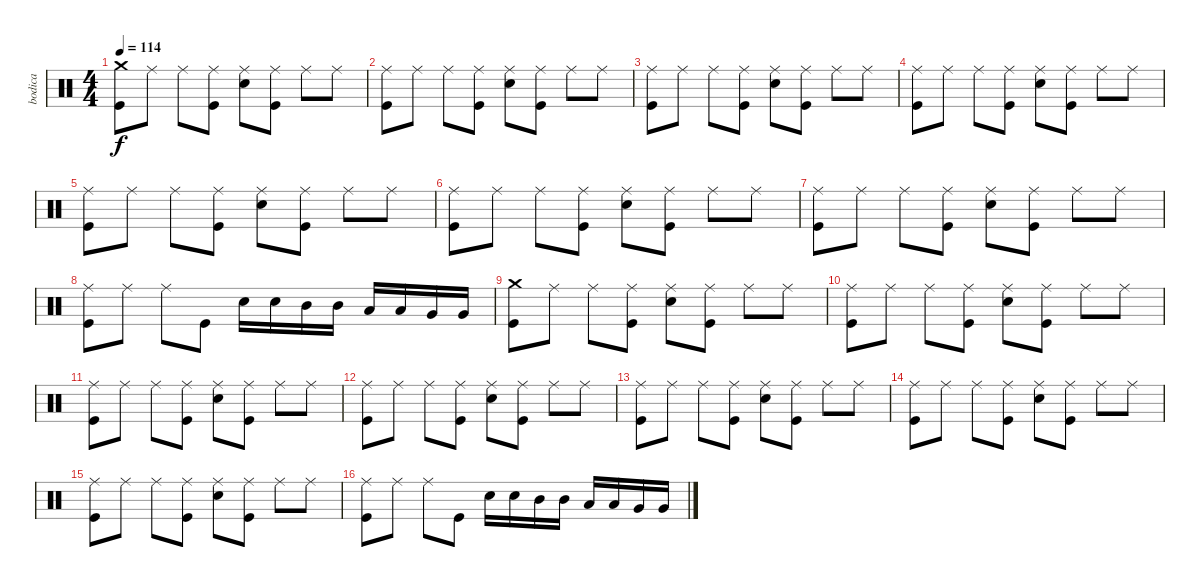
\track ("bodica" "bodica") {instrument percussion}
\staff {score}
\articulation defaults
\ts (4 4)
\tempo 114
\clef neutral
\ks c
("Crash medium (hit)" "Kick (hit)").8{dy f} "Ride (middle)".8 "Ride (middle)".8 ("Ride (middle)" "Kick (hit)").8 ("Ride (middle)" "Snare (hit) 2").8 ("Ride (middle)" "Kick (hit)").8 "Ride (middle)".8 "Ride (middle)".8 |
("Ride (middle)" "Kick (hit)").8 "Ride (middle)".8 "Ride (middle)".8 ("Ride (middle)" "Kick (hit)").8 ("Ride (middle)" "Snare (hit) 2").8 ("Ride (middle)" "Kick (hit)").8 "Ride (middle)".8 "Ride (middle)".8 |
("Ride (middle)" "Kick (hit)").8 "Ride (middle)".8 "Ride (middle)".8 ("Ride (middle)" "Kick (hit)").8 ("Ride (middle)" "Snare (hit) 2").8 ("Ride (middle)" "Kick (hit)").8 "Ride (middle)".8 "Ride (middle)".8 |
("Ride (middle)" "Kick (hit)").8 "Ride (middle)".8 "Ride (middle)".8 ("Ride (middle)" "Kick (hit)").8 ("Ride (middle)" "Snare (hit) 2").8 ("Ride (middle)" "Kick (hit)").8 "Ride (middle)".8 "Ride (middle)".8 |
("Ride (middle)" "Kick (hit)").8 "Ride (middle)".8 "Ride (middle)".8 ("Ride (middle)" "Kick (hit)").8 ("Ride (middle)" "Snare (hit) 2").8 ("Ride (middle)" "Kick (hit)").8 "Ride (middle)".8 "Ride (middle)".8 |
("Ride (middle)" "Kick (hit)").8 "Ride (middle)".8 "Ride (middle)".8 ("Ride (middle)" "Kick (hit)").8 ("Ride (middle)" "Snare (hit) 2").8 ("Ride (middle)" "Kick (hit)").8 "Ride (middle)".8 "Ride (middle)".8 |
("Ride (middle)" "Kick (hit)").8 "Ride (middle)".8 "Ride (middle)".8 ("Ride (middle)" "Kick (hit)").8 ("Ride (middle)" "Snare (hit) 2").8 ("Ride (middle)" "Kick (hit)").8 "Ride (middle)".8 "Ride (middle)".8 |
("Ride (middle)" "Kick (hit)").8 "Ride (middle)".8 "Ride (middle)".8 "Kick (hit)".8 "Snare (hit) 2".16 "Snare (hit) 2".16 "Mid Tom (hit)".16 "Mid Tom (hit)".16 "Low Tom (hit)".16 "Low Tom (hit)".16 "Very Low Tom (hit)".16 "Very Low Tom (hit)".16 |
("Crash medium (hit)" "Kick (hit)").8 "Ride (middle)".8 "Ride (middle)".8 ("Ride (middle)" "Kick (hit)").8 ("Ride (middle)" "Snare (hit) 2").8 ("Ride (middle)" "Kick (hit)").8 "Ride (middle)".8 "Ride (middle)".8 |
("Ride (middle)" "Kick (hit)").8 "Ride (middle)".8 "Ride (middle)".8 ("Ride (middle)" "Kick (hit)").8 ("Ride (middle)" "Snare (hit) 2").8 ("Ride (middle)" "Kick (hit)").8 "Ride (middle)".8 "Ride (middle)".8 |
("Ride (middle)" "Kick (hit)").8 "Ride (middle)".8 "Ride (middle)".8 ("Ride (middle)" "Kick (hit)").8 ("Ride (middle)" "Snare (hit) 2").8 ("Ride (middle)" "Kick (hit)").8 "Ride (middle)".8 "Ride (middle)".8 |
("Ride (middle)" "Kick (hit)").8 "Ride (middle)".8 "Ride (middle)".8 ("Ride (middle)" "Kick (hit)").8 ("Ride (middle)" "Snare (hit) 2").8 ("Ride (middle)" "Kick (hit)").8 "Ride (middle)".8 "Ride (middle)".8 |
("Ride (middle)" "Kick (hit)").8 "Ride (middle)".8 "Ride (middle)".8 ("Ride (middle)" "Kick (hit)").8 ("Ride (middle)" "Snare (hit) 2").8 ("Ride (middle)" "Kick (hit)").8 "Ride (middle)".8 "Ride (middle)".8 |
("Ride (middle)" "Kick (hit)").8 "Ride (middle)".8 "Ride (middle)".8 ("Ride (middle)" "Kick (hit)").8 ("Ride (middle)" "Snare (hit) 2").8 ("Ride (middle)" "Kick (hit)").8 "Ride (middle)".8 "Ride (middle)".8 |
("Ride (middle)" "Kick (hit)").8 "Ride (middle)".8 "Ride (middle)".8 ("Ride (middle)" "Kick (hit)").8 ("Ride (middle)" "Snare (hit) 2").8 ("Ride (middle)" "Kick (hit)").8 "Ride (middle)".8 "Ride (middle)".8 |
("Ride (middle)" "Kick (hit)").8 "Ride (middle)".8 "Ride (middle)".8 "Kick (hit)".8 "Snare (hit) 2".16 "Snare (hit) 2".16 "Mid Tom (hit)".16 "Mid Tom (hit)".16 "Low Tom (hit)".16 "Low Tom (hit)".16 "Very Low Tom (hit)".16 "Very Low Tom (hit)".16
